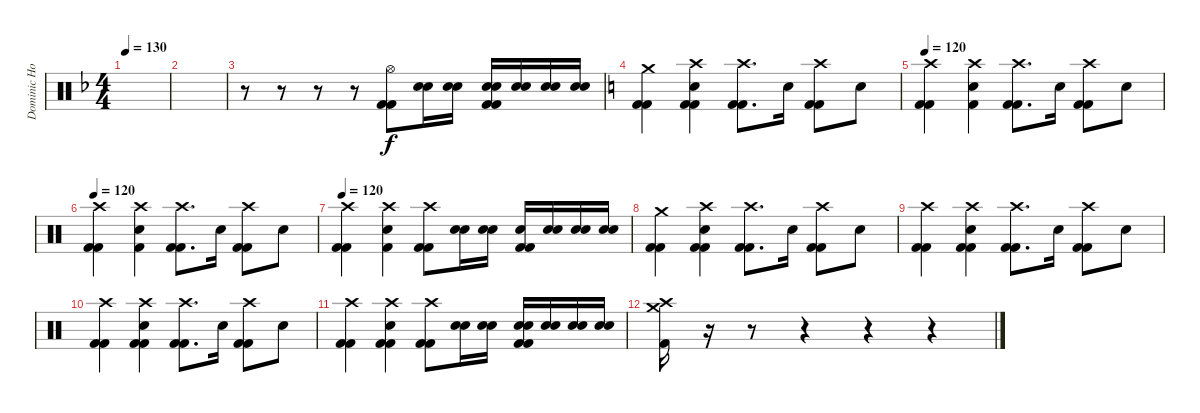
\track ("Dominic Howard" "Dominic Ho") {instrument percussion}
\staff {score}
\articulation defaults
\ts (4 4)
\tempo 130
\clef neutral
\ks f
|
|
r.8 r.8 r.8 r.8 ("Hi-Hat (open)" "Kick (hit) 2" "Kick (hit) 2").8 ("Electric Snare (hit)" "Electric Snare (hit)").16 ("Electric Snare (hit)" "Electric Snare (hit)").16 ("Electric Snare (hit)" "Kick (hit) 2" "Electric Snare (hit)" "Kick (hit) 2").16 ("Electric Snare (hit)" "Electric Snare (hit)").16 ("Electric Snare (hit)" "Electric Snare (hit)").16 ("Electric Snare (hit)" "Electric Snare (hit)").16 |
\ks c
("Crash medium (hit)" "Kick (hit) 2" "Kick (hit) 2").4 ("Kick (hit) 2" "Crash high (hit)" "Electric Snare (hit)" "Kick (hit) 2").4 ("Crash high (hit)" "Kick (hit) 2" "Kick (hit) 2").8{d} "Electric Snare (hit)".16 ("Crash high (hit)" "Kick (hit) 2" "Kick (hit) 2").8 "Electric Snare (hit)".8 |
\tempo 120
("Crash high (hit)" "Kick (hit) 2" "Kick (hit) 2").4 ("Kick (hit) 2" "Crash high (hit)" "Electric Snare (hit)").4 ("Crash high (hit)" "Kick (hit) 2" "Kick (hit) 2").8{d} "Electric Snare (hit)".16 ("Crash high (hit)" "Kick (hit) 2" "Kick (hit) 2").8 "Electric Snare (hit)".8 |
\tempo 120
("Crash high (hit)" "Kick (hit) 2" "Kick (hit) 2").4 ("Kick (hit) 2" "Crash high (hit)" "Electric Snare (hit)").4 ("Crash high (hit)" "Kick (hit) 2" "Kick (hit) 2").8{d} "Electric Snare (hit)".16 ("Crash high (hit)" "Kick (hit) 2" "Kick (hit) 2").8 "Electric Snare (hit)".8 |
\tempo 120
("Crash high (hit)" "Kick (hit) 2" "Kick (hit) 2").4 ("Kick (hit) 2" "Crash high (hit)" "Electric Snare (hit)").4 ("Crash high (hit)" "Kick (hit) 2" "Kick (hit) 2").8 ("Electric Snare (hit)" "Electric Snare (hit)").16 ("Electric Snare (hit)" "Electric Snare (hit)").16 ("Kick (hit) 2" "Electric Snare (hit)" "Kick (hit) 2").16 ("Electric Snare (hit)" "Electric Snare (hit)").16 ("Electric Snare (hit)" "Electric Snare (hit)").16 ("Electric Snare (hit)" "Electric Snare (hit)").16 |
("Crash medium (hit)" "Kick (hit) 2" "Kick (hit) 2").4 ("Kick (hit) 2" "Crash high (hit)" "Electric Snare (hit)" "Kick (hit) 2").4 ("Crash high (hit)" "Kick (hit) 2" "Kick (hit) 2").8{d} "Electric Snare (hit)".16 ("Crash high (hit)" "Kick (hit) 2" "Kick (hit) 2").8 "Electric Snare (hit)".8 |
("Crash high (hit)" "Kick (hit) 2" "Kick (hit) 2").4 ("Kick (hit) 2" "Crash high (hit)" "Electric Snare (hit)" "Kick (hit) 2").4 ("Crash high (hit)" "Kick (hit) 2" "Kick (hit) 2").8{d} "Electric Snare (hit)".16 ("Crash high (hit)" "Kick (hit) 2" "Kick (hit) 2").8 "Electric Snare (hit)".8 |
("Crash high (hit)" "Kick (hit) 2" "Kick (hit) 2").4 ("Kick (hit) 2" "Crash high (hit)" "Electric Snare (hit)" "Kick (hit) 2").4 ("Crash high (hit)" "Kick (hit) 2" "Kick (hit) 2").8{d} "Electric Snare (hit)".16 ("Crash high (hit)" "Kick (hit) 2" "Kick (hit) 2").8 "Electric Snare (hit)".8 |
("Crash high (hit)" "Kick (hit) 2" "Kick (hit) 2").4 ("Kick (hit) 2" "Crash high (hit)" "Electric Snare (hit)" "Kick (hit) 2").4 ("Crash high (hit)" "Kick (hit) 2" "Kick (hit) 2").8 ("Electric Snare (hit)" "Electric Snare (hit)").16 ("Electric Snare (hit)" "Electric Snare (hit)").16 ("Electric Snare (hit)" "Kick (hit) 2" "Electric Snare (hit)" "Kick (hit) 2").16 ("Electric Snare (hit)" "Electric Snare (hit)").16 ("Electric Snare (hit)" "Electric Snare (hit)").16 ("Electric Snare (hit)" "Electric Snare (hit)").16 |
("Crash medium (hit)" "Crash high (hit)" "Kick (hit) 2").16 r.16 r.8 r.4 r.4 r.4
